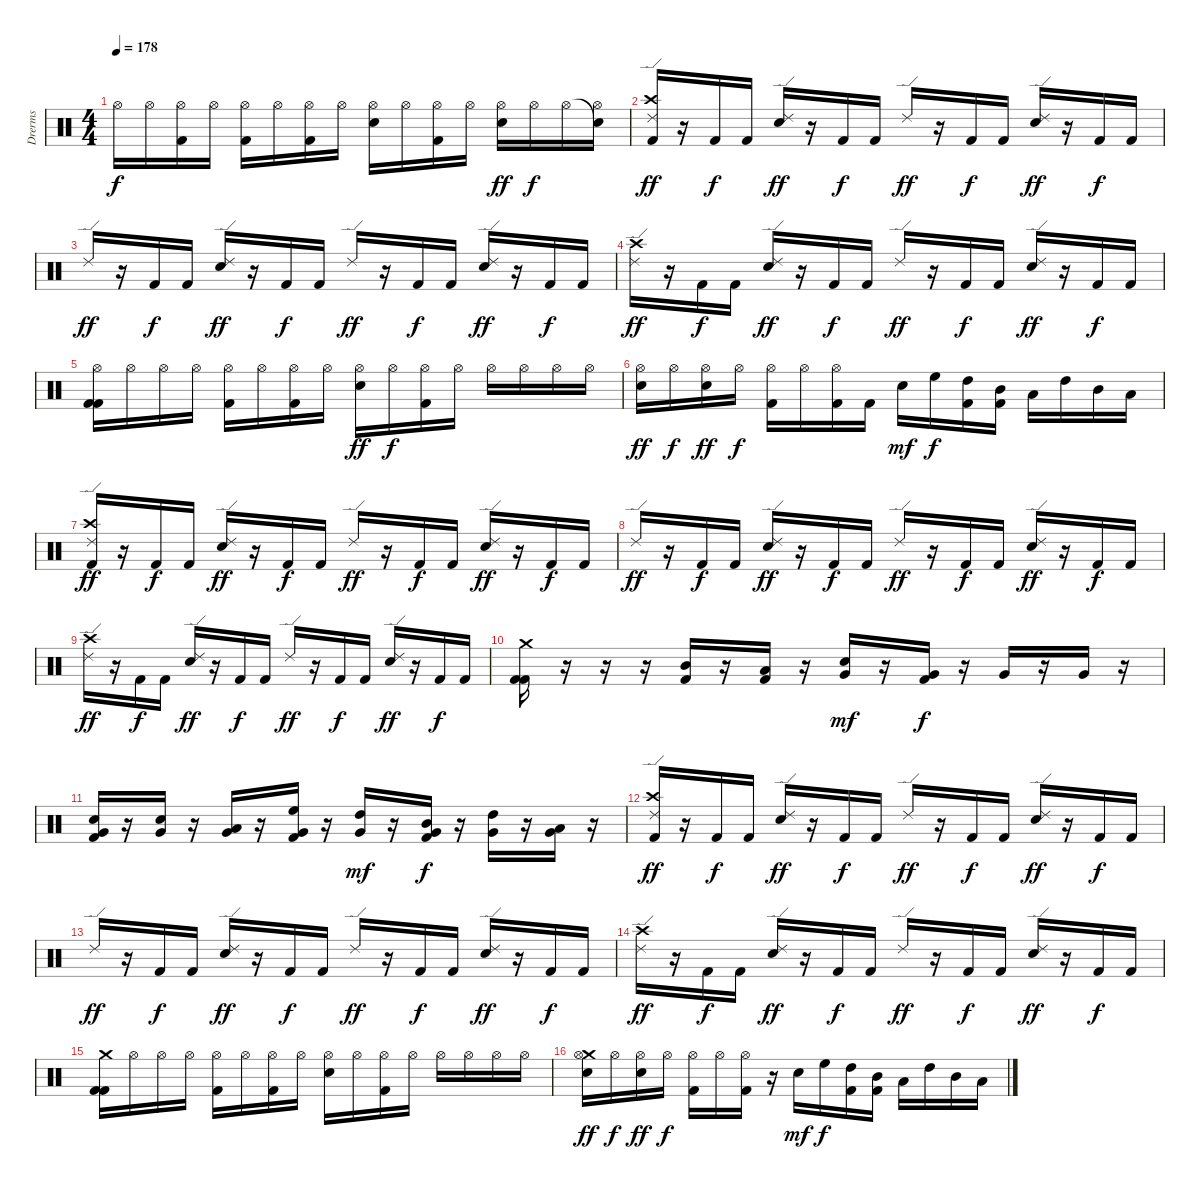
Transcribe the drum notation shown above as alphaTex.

\track ("Drerms" "Drerms") {instrument percussion}
\staff {score}
\articulation defaults
\ts (4 4)
\tempo 178
\clef neutral
\ks c "Hi-Hat (open)".16{dy f} "Hi-Hat (open)".16
("Hi-Hat (open)" "Kick (hit) 2").16 "Hi-Hat (open)".16 ("Hi-Hat (open)" "Kick (hit) 2").16 "Hi-Hat (open)".16 ("Hi-Hat (open)" "Kick (hit) 2").16 "Hi-Hat (open)".16 ("Snare (hit) 2" "Hi-Hat (open)").16 "Hi-Hat (open)".16 ("Hi-Hat (open)" "Kick (hit) 2").16 "Hi-Hat (open)".16 ("Snare (hit) 2" "Hi-Hat (open)").16{dy ff} "Hi-Hat (open)".16{dy f} "Hi-Hat (open)".16 ("Snare (hit)"{t} "Hi-Hat (open)").16 |
("Crash high (hit)" "Ride (edge) 2" "Kick (hit) 2").16{dy ff} r.16 "Kick (hit) 2".16{dy f} "Kick (hit) 2".16 ("Snare (hit) 2" "Ride (edge) 2").16{dy ff} r.16 "Kick (hit) 2".16{dy f} "Kick (hit) 2".16 "Ride (edge) 2".16{dy ff} r.16 "Kick (hit) 2".16{dy f} "Kick (hit) 2".16 ("Snare (hit) 2" "Ride (edge) 2").16{dy ff} r.16 "Kick (hit) 2".16{dy f} "Kick (hit) 2".16 |
"Ride (edge) 2".16{dy ff} r.16 "Kick (hit) 2".16{dy f} "Kick (hit) 2".16 ("Snare (hit) 2" "Ride (edge) 2").16{dy ff} r.16 "Kick (hit) 2".16{dy f} "Kick (hit) 2".16 "Ride (edge) 2".16{dy ff} r.16 "Kick (hit) 2".16{dy f} "Kick (hit) 2".16 ("Snare (hit) 2" "Ride (edge) 2").16{dy ff} r.16 "Kick (hit) 2".16{dy f} "Kick (hit) 2".16 |
("Crash high (hit)" "Ride (edge) 2").16{dy ff} r.16 "Kick (hit) 2".16{dy f} "Kick (hit) 2".16 ("Snare (hit) 2" "Ride (edge) 2").16{dy ff} r.16 "Kick (hit) 2".16{dy f} "Kick (hit) 2".16 "Ride (edge) 2".16{dy ff} r.16 "Kick (hit) 2".16{dy f} "Kick (hit) 2".16 ("Snare (hit) 2" "Ride (edge) 2").16{dy ff} r.16 "Kick (hit) 2".16{dy f} "Kick (hit) 2".16 |
("Hi-Hat (open)" "Kick (hit) 2" "Kick (hit) 2").16 "Hi-Hat (open)".16 "Hi-Hat (open)".16 "Hi-Hat (open)".16 ("Hi-Hat (open)" "Kick (hit) 2").16 "Hi-Hat (open)".16 ("Hi-Hat (open)" "Kick (hit) 2").16 "Hi-Hat (open)".16 ("Snare (hit) 2" "Hi-Hat (open)").16{dy ff} "Hi-Hat (open)".16{dy f} ("Hi-Hat (open)" "Kick (hit) 2").16 "Hi-Hat (open)".16 "Hi-Hat (open)".16 "Hi-Hat (open)".16 "Hi-Hat (open)".16 "Hi-Hat (open)".16 |
("Snare (hit) 2" "Hi-Hat (open)").16{dy ff} "Hi-Hat (open)".16{dy f} ("Snare (hit) 2" "Hi-Hat (open)").16{dy ff} "Hi-Hat (open)".16{dy f} ("Hi-Hat (open)" "Kick (hit) 2").16 "Hi-Hat (open)".16 ("Hi-Hat (open)" "Kick (hit) 2").16 "Kick (hit) 2".16 "Snare (hit) 2".16{dy mf} "High Floor Tom (hit)".16{dy f} ("High Tom (hit)" "Kick (hit) 2").16 ("Mid Tom (hit)" "Kick (hit) 2").16 "Low Tom (hit)".16 "High Tom (hit)".16 "Mid Tom (hit)".16 "Low Tom (hit)".16 |
("Crash high (hit)" "Ride (edge) 2" "Kick (hit) 2").16{dy ff} r.16 "Kick (hit) 2".16{dy f} "Kick (hit) 2".16 ("Snare (hit) 2" "Ride (edge) 2").16{dy ff} r.16 "Kick (hit) 2".16{dy f} "Kick (hit) 2".16 "Ride (edge) 2".16{dy ff} r.16 "Kick (hit) 2".16{dy f} "Kick (hit) 2".16 ("Snare (hit) 2" "Ride (edge) 2").16{dy ff} r.16 "Kick (hit) 2".16{dy f} "Kick (hit) 2".16 |
"Ride (edge) 2".16{dy ff} r.16 "Kick (hit) 2".16{dy f} "Kick (hit) 2".16 ("Snare (hit) 2" "Ride (edge) 2").16{dy ff} r.16 "Kick (hit) 2".16{dy f} "Kick (hit) 2".16 "Ride (edge) 2".16{dy ff} r.16 "Kick (hit) 2".16{dy f} "Kick (hit) 2".16 ("Snare (hit) 2" "Ride (edge) 2").16{dy ff} r.16 "Kick (hit) 2".16{dy f} "Kick (hit) 2".16 |
("Crash high (hit)" "Ride (edge) 2").16{dy ff} r.16 "Kick (hit) 2".16{dy f} "Kick (hit) 2".16 ("Snare (hit) 2" "Ride (edge) 2").16{dy ff} r.16 "Kick (hit) 2".16{dy f} "Kick (hit) 2".16 "Ride (edge) 2".16{dy ff} r.16 "Kick (hit) 2".16{dy f} "Kick (hit) 2".16 ("Snare (hit) 2" "Ride (edge) 2").16{dy ff} r.16 "Kick (hit) 2".16{dy f} "Kick (hit) 2".16 |
("Crash medium (hit)" "Kick (hit) 2" "Kick (hit) 2").16 r.16 r.16 r.16 ("Mid Tom (hit)" "Kick (hit) 2").16 r.16 ("Low Tom (hit)" "Kick (hit) 2").16 r.16 ("Snare (hit) 2" "Very Low Tom (hit)").16{dy mf} r.16 ("Very Low Tom (hit)" "Kick (hit) 2").16{dy f} r.16 "Very Low Tom (hit)".16 r.16 "Very Low Tom (hit)".16 r.16 |
("Snare (hit) 2" "Very Low Tom (hit)" "Kick (hit) 2").16 r.16 ("Snare (hit) 2" "Very Low Tom (hit)").16 r.16 ("Low Tom (hit)" "Very Low Tom (hit)").16 r.16 ("High Floor Tom (hit)" "Very Low Tom (hit)" "Kick (hit) 2").16 r.16 ("High Tom (hit)" "Very Low Tom (hit)").16{dy mf} r.16 ("Mid Tom (hit)" "Very Low Tom (hit)" "Kick (hit) 2").16{dy f} r.16 ("High Tom (hit)" "Very Low Tom (hit)").16 r.16 ("Low Tom (hit)" "Very Low Tom (hit)").16 r.16 |
("Crash high (hit)" "Ride (edge) 2" "Kick (hit) 2").16{dy ff} r.16 "Kick (hit) 2".16{dy f} "Kick (hit) 2".16 ("Snare (hit) 2" "Ride (edge) 2").16{dy ff} r.16 "Kick (hit) 2".16{dy f} "Kick (hit) 2".16 "Ride (edge) 2".16{dy ff} r.16 "Kick (hit) 2".16{dy f} "Kick (hit) 2".16 ("Snare (hit) 2" "Ride (edge) 2").16{dy ff} r.16 "Kick (hit) 2".16{dy f} "Kick (hit) 2".16 |
"Ride (edge) 2".16{dy ff} r.16 "Kick (hit) 2".16{dy f} "Kick (hit) 2".16 ("Snare (hit) 2" "Ride (edge) 2").16{dy ff} r.16 "Kick (hit) 2".16{dy f} "Kick (hit) 2".16 "Ride (edge) 2".16{dy ff} r.16 "Kick (hit) 2".16{dy f} "Kick (hit) 2".16 ("Snare (hit) 2" "Ride (edge) 2").16{dy ff} r.16 "Kick (hit) 2".16{dy f} "Kick (hit) 2".16 |
("Crash high (hit)" "Ride (edge) 2").16{dy ff} r.16 "Kick (hit) 2".16{dy f} "Kick (hit) 2".16 ("Snare (hit) 2" "Ride (edge) 2").16{dy ff} r.16 "Kick (hit) 2".16{dy f} "Kick (hit) 2".16 "Ride (edge) 2".16{dy ff} r.16 "Kick (hit) 2".16{dy f} "Kick (hit) 2".16 ("Snare (hit) 2" "Ride (edge) 2").16{dy ff} r.16 "Kick (hit) 2".16{dy f} "Kick (hit) 2".16 |
("Crash medium (hit)" "Kick (hit) 2" "Kick (hit) 2").16 "Hi-Hat (open)".16 "Hi-Hat (open)".16 "Hi-Hat (open)".16 ("Hi-Hat (open)" "Kick (hit) 2").16 "Hi-Hat (open)".16 ("Hi-Hat (open)" "Kick (hit) 2").16 "Hi-Hat (open)".16 ("Snare (hit) 2" "Hi-Hat (open)").16 "Hi-Hat (open)".16 ("Hi-Hat (open)" "Kick (hit) 2").16 "Hi-Hat (open)".16 "Hi-Hat (open)".16 "Hi-Hat (open)".16 "Hi-Hat (open)".16 "Hi-Hat (open)".16 |
("Crash medium (hit)" "Snare (hit) 2" "Hi-Hat (open)").16{dy ff} "Hi-Hat (open)".16{dy f} ("Snare (hit) 2" "Hi-Hat (open)").16{dy ff} "Hi-Hat (open)".16{dy f} ("Hi-Hat (open)" "Kick (hit) 2").16 "Hi-Hat (open)".16 ("Hi-Hat (open)" "Kick (hit) 2").16 r.16 "Snare (hit) 2".16{dy mf} "High Floor Tom (hit)".16{dy f} ("High Tom (hit)" "Kick (hit) 2").16 ("Mid Tom (hit)" "Kick (hit) 2").16 "Low Tom (hit)".16 "High Tom (hit)".16 "Mid Tom (hit)".16 "Low Tom (hit)".16
